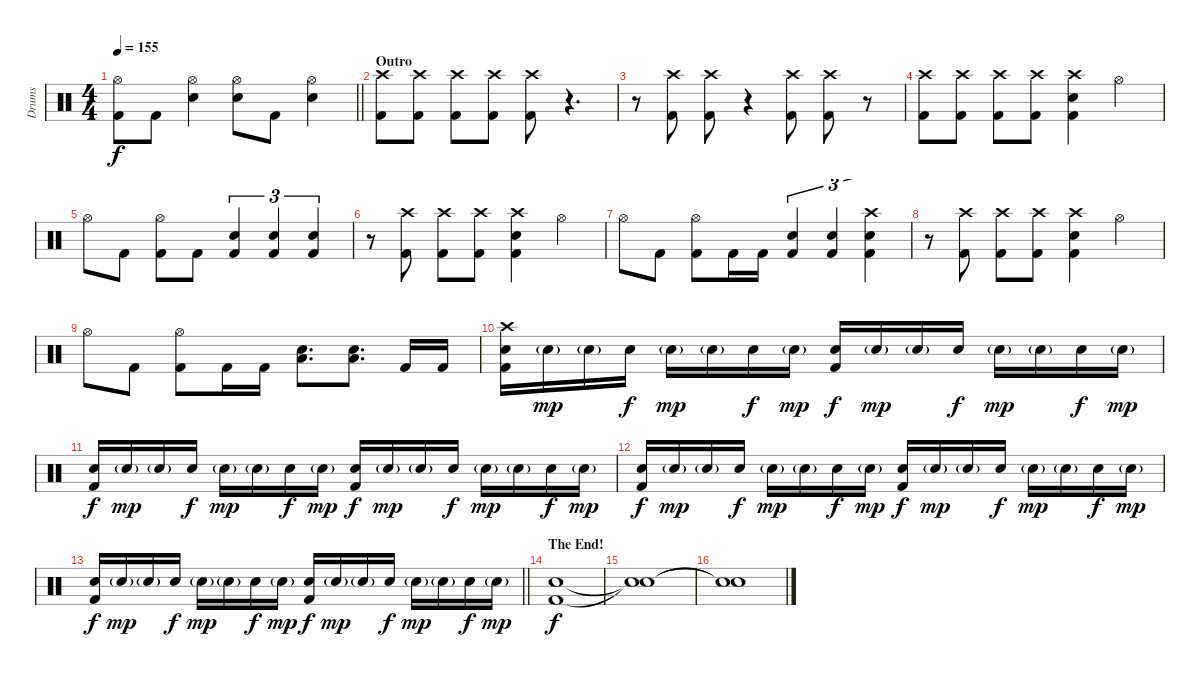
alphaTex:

\track ("Drums" "Drums") {instrument percussion}
\staff {score}
\articulation defaults
\ts (4 4)
\tempo 155
\clef neutral
\barLineRight lightlight
\ks c
("Hi-Hat (open)" "Kick (hit) 2").8{dy f} "Kick (hit) 2".8 ("Hi-Hat (open)" "Snare (hit) 2").4 ("Hi-Hat (open)" "Snare (hit) 2").8 "Kick (hit) 2".8 ("Hi-Hat (open)" "Snare (hit) 2").4 |
\section ("" "Outro")
("Crash high (hit)" "Kick (hit) 2").8 ("Crash high (hit)" "Kick (hit) 2").8 ("Crash high (hit)" "Kick (hit) 2").8 ("Crash high (hit)" "Kick (hit) 2").8 ("Crash high (hit)" "Kick (hit) 2").8 r.4{d} |
r.8 ("Crash high (hit)" "Kick (hit) 2").8 ("Crash high (hit)" "Kick (hit) 2").8 r.4 ("Crash high (hit)" "Kick (hit) 2").8 ("Crash high (hit)" "Kick (hit) 2").8 r.8 |
("Crash high (hit)" "Kick (hit) 2").8 ("Crash high (hit)" "Kick (hit) 2").8 ("Crash high (hit)" "Kick (hit) 2").8 ("Crash high (hit)" "Kick (hit) 2").8 ("Crash high (hit)" "Snare (hit) 2" "Kick (hit) 2").4 "Hi-Hat (open)".4 |
"Hi-Hat (open)".8 "Kick (hit) 2".8 ("Hi-Hat (open)" "Kick (hit) 2").8 "Kick (hit) 2".8 ("Snare (hit) 2" "Kick (hit) 2").4{tu (3 2)} ("Snare (hit) 2" "Kick (hit) 2").4{tu (3 2)} ("Snare (hit) 2" "Kick (hit) 2").4{tu (3 2)} |
r.8 ("Crash high (hit)" "Kick (hit) 2").8 ("Crash high (hit)" "Kick (hit) 2").8 ("Crash high (hit)" "Kick (hit) 2").8 ("Crash high (hit)" "Snare (hit) 2" "Kick (hit) 2").4 "Hi-Hat (open)".4 |
"Hi-Hat (open)".8 "Kick (hit) 2".8 ("Hi-Hat (open)" "Kick (hit) 2").8 "Kick (hit) 2".16 "Kick (hit) 2".16 ("Snare (hit) 2" "Kick (hit) 2").4{tu (3 2)} ("Snare (hit) 2" "Kick (hit) 2").4{tu (3 2)} ("Crash high (hit)" "Snare (hit) 2" "Kick (hit) 2").4{tu (3 2)} |
r.8 ("Crash high (hit)" "Kick (hit) 2").8 ("Crash high (hit)" "Kick (hit) 2").8 ("Crash high (hit)" "Kick (hit) 2").8 ("Crash high (hit)" "Snare (hit) 2" "Kick (hit) 2").4 "Hi-Hat (open)".4 |
"Hi-Hat (open)".8 "Kick (hit) 2".8 ("Hi-Hat (open)" "Kick (hit) 2").8 "Kick (hit) 2".16 "Kick (hit) 2".16 ("Snare (hit) 2" "Low Floor Tom (hit)").8{d} ("Snare (hit) 2" "Low Floor Tom (hit)").8{d} "Kick (hit) 2".16 "Kick (hit) 2".16 |
("Crash high (hit)" "Snare (hit) 2" "Kick (hit) 2").16 "Snare (hit) 2"{g}.16{dy mp} "Snare (hit) 2"{g}.16 "Snare (hit) 2".16{dy f} "Snare (hit) 2"{g}.16{dy mp} "Snare (hit) 2"{g}.16 "Snare (hit) 2".16{dy f} "Snare (hit) 2"{g}.16{dy mp} ("Snare (hit) 2" "Kick (hit) 2").16{dy f} "Snare (hit) 2"{g}.16{dy mp} "Snare (hit) 2"{g}.16 "Snare (hit) 2".16{dy f} "Snare (hit) 2"{g}.16{dy mp} "Snare (hit) 2"{g}.16 "Snare (hit) 2".16{dy f} "Snare (hit) 2"{g}.16{dy mp} |
("Snare (hit) 2" "Kick (hit) 2").16{dy f} "Snare (hit) 2"{g}.16{dy mp} "Snare (hit) 2"{g}.16 "Snare (hit) 2".16{dy f} "Snare (hit) 2"{g}.16{dy mp} "Snare (hit) 2"{g}.16 "Snare (hit) 2".16{dy f} "Snare (hit) 2"{g}.16{dy mp} ("Snare (hit) 2" "Kick (hit) 2").16{dy f} "Snare (hit) 2"{g}.16{dy mp} "Snare (hit) 2"{g}.16 "Snare (hit) 2".16{dy f} "Snare (hit) 2"{g}.16{dy mp} "Snare (hit) 2"{g}.16 "Snare (hit) 2".16{dy f} "Snare (hit) 2"{g}.16{dy mp} |
("Snare (hit) 2" "Kick (hit) 2").16{dy f} "Snare (hit) 2"{g}.16{dy mp} "Snare (hit) 2"{g}.16 "Snare (hit) 2".16{dy f} "Snare (hit) 2"{g}.16{dy mp} "Snare (hit) 2"{g}.16 "Snare (hit) 2".16{dy f} "Snare (hit) 2"{g}.16{dy mp} ("Snare (hit) 2" "Kick (hit) 2").16{dy f} "Snare (hit) 2"{g}.16{dy mp} "Snare (hit) 2"{g}.16 "Snare (hit) 2".16{dy f} "Snare (hit) 2"{g}.16{dy mp} "Snare (hit) 2"{g}.16 "Snare (hit) 2".16{dy f} "Snare (hit) 2"{g}.16{dy mp} |
\barLineRight lightlight
("Snare (hit) 2" "Kick (hit) 2").16{dy f} "Snare (hit) 2"{g}.16{dy mp} "Snare (hit) 2"{g}.16 "Snare (hit) 2".16{dy f} "Snare (hit) 2"{g}.16{dy mp} "Snare (hit) 2"{g}.16 "Snare (hit) 2".16{dy f} "Snare (hit) 2"{g}.16{dy mp} ("Snare (hit) 2" "Kick (hit) 2").16{dy f} "Snare (hit) 2"{g}.16{dy mp} "Snare (hit) 2"{g}.16 "Snare (hit) 2".16{dy f} "Snare (hit) 2"{g}.16{dy mp} "Snare (hit) 2"{g}.16 "Snare (hit) 2".16{dy f} "Snare (hit) 2"{g}.16{dy mp} |
\section ("" "The End!")
("Snare (hit) 2" "Kick (hit) 2").1{dy f} |
("Snare (hit)"{t} "Snare (hit)"{t}).1 |
("Snare (hit)"{t} "Snare (hit)"{t}).1
